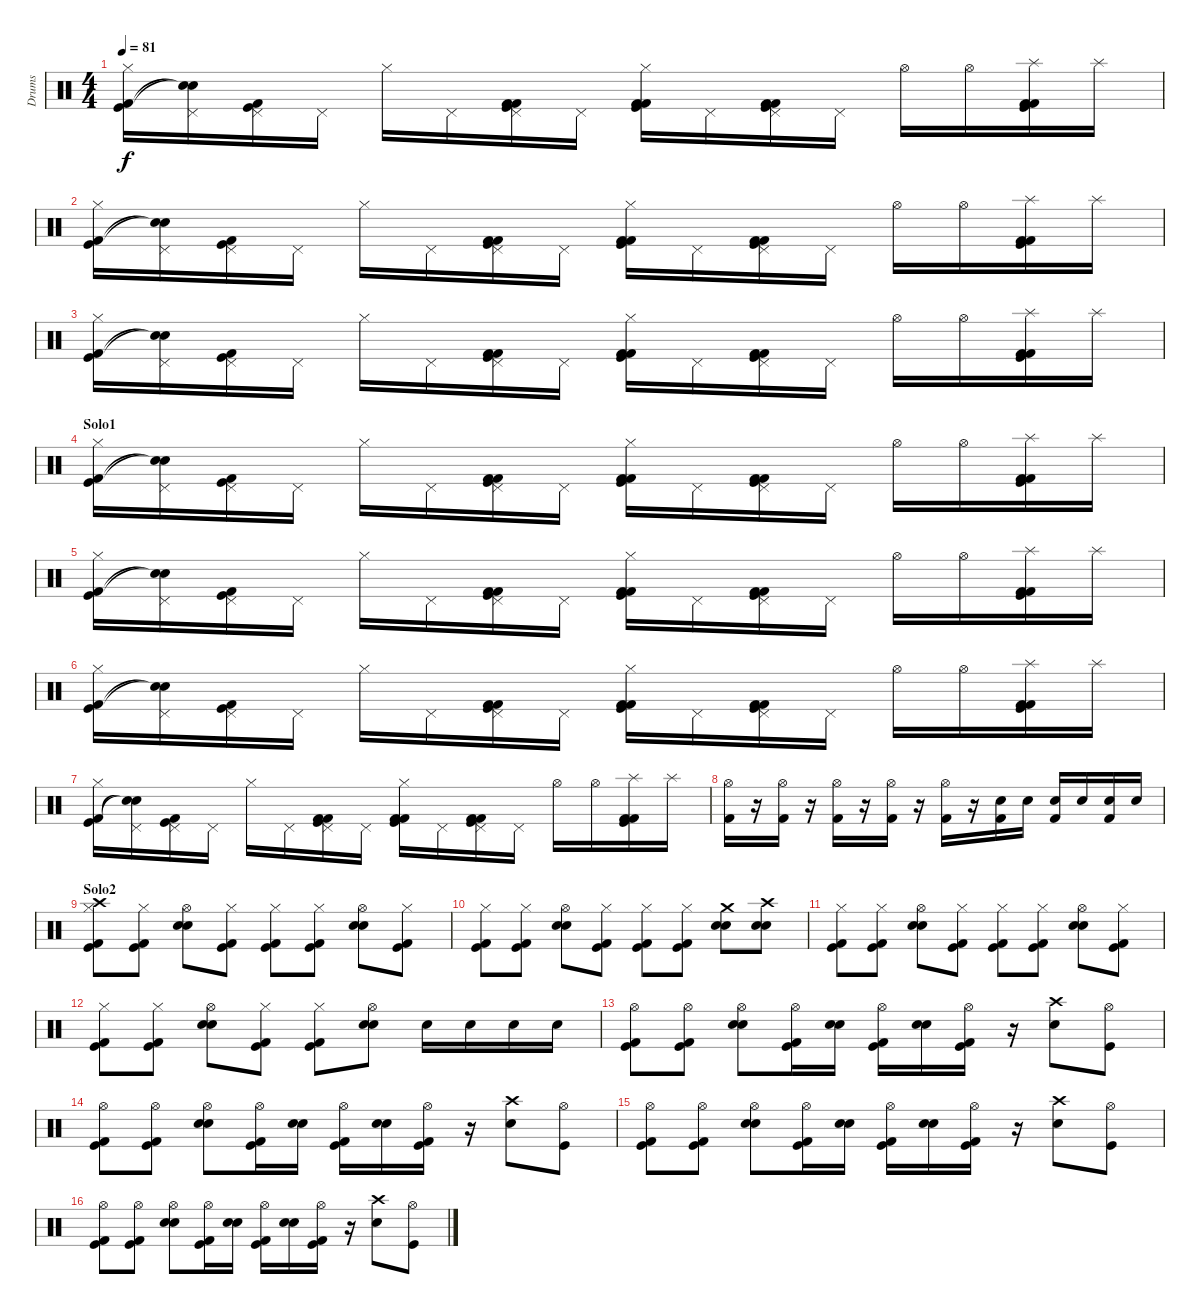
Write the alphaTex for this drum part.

\track ("Drums" "Drums") {instrument percussion}
\staff {score}
\articulation defaults
\ts (4 4)
\tempo 81
\clef neutral
\ks c
("Hi-Hat (closed)" "Kick (hit) 2" "Kick (hit)").16{dy f} ("Pedal Hi-Hat (hit)" "Snare (hit)"{t} "Snare (hit)"{t}).16 ("Pedal Hi-Hat (hit)" "Kick (hit) 2" "Kick (hit)").16 "Pedal Hi-Hat (hit)".16 "Hi-Hat (closed)".16 "Pedal Hi-Hat (hit)".16 ("Kick (hit) 2" "Pedal Hi-Hat (hit)" "Kick (hit) 2" "Kick (hit)").16 "Pedal Hi-Hat (hit)".16 ("Kick (hit) 2" "Hi-Hat (closed)" "Kick (hit) 2" "Kick (hit)").16 "Pedal Hi-Hat (hit)".16 ("Kick (hit) 2" "Pedal Hi-Hat (hit)" "Kick (hit) 2" "Kick (hit)").16 "Pedal Hi-Hat (hit)".16 "Hi-Hat (open)".16 "Hi-Hat (open)".16 ("Kick (hit) 2" "Splash (hit)" "Kick (hit) 2" "Kick (hit)").16 "Splash (hit)".16 |
("Hi-Hat (closed)" "Kick (hit) 2" "Kick (hit)").16 ("Pedal Hi-Hat (hit)" "Snare (hit)"{t} "Snare (hit)"{t}).16 ("Pedal Hi-Hat (hit)" "Kick (hit) 2" "Kick (hit)").16 "Pedal Hi-Hat (hit)".16 "Hi-Hat (closed)".16 "Pedal Hi-Hat (hit)".16 ("Kick (hit) 2" "Pedal Hi-Hat (hit)" "Kick (hit) 2" "Kick (hit)").16 "Pedal Hi-Hat (hit)".16 ("Kick (hit) 2" "Hi-Hat (closed)" "Kick (hit) 2" "Kick (hit)").16 "Pedal Hi-Hat (hit)".16 ("Kick (hit) 2" "Pedal Hi-Hat (hit)" "Kick (hit) 2" "Kick (hit)").16 "Pedal Hi-Hat (hit)".16 "Hi-Hat (open)".16 "Hi-Hat (open)".16 ("Kick (hit) 2" "Splash (hit)" "Kick (hit) 2" "Kick (hit)").16 "Splash (hit)".16 |
("Hi-Hat (closed)" "Kick (hit) 2" "Kick (hit)").16 ("Pedal Hi-Hat (hit)" "Snare (hit)"{t} "Snare (hit)"{t}).16 ("Pedal Hi-Hat (hit)" "Kick (hit) 2" "Kick (hit)").16 "Pedal Hi-Hat (hit)".16 "Hi-Hat (closed)".16 "Pedal Hi-Hat (hit)".16 ("Kick (hit) 2" "Pedal Hi-Hat (hit)" "Kick (hit) 2" "Kick (hit)").16 "Pedal Hi-Hat (hit)".16 ("Kick (hit) 2" "Hi-Hat (closed)" "Kick (hit) 2" "Kick (hit)").16 "Pedal Hi-Hat (hit)".16 ("Kick (hit) 2" "Pedal Hi-Hat (hit)" "Kick (hit) 2" "Kick (hit)").16 "Pedal Hi-Hat (hit)".16 "Hi-Hat (open)".16 "Hi-Hat (open)".16 ("Kick (hit) 2" "Splash (hit)" "Kick (hit) 2" "Kick (hit)").16 "Splash (hit)".16 |
\section ("" "Solo1")
("Hi-Hat (closed)" "Kick (hit) 2" "Kick (hit)").16 ("Pedal Hi-Hat (hit)" "Snare (hit)"{t} "Snare (hit)"{t}).16 ("Pedal Hi-Hat (hit)" "Kick (hit) 2" "Kick (hit)").16 "Pedal Hi-Hat (hit)".16 "Hi-Hat (closed)".16 "Pedal Hi-Hat (hit)".16 ("Kick (hit) 2" "Pedal Hi-Hat (hit)" "Kick (hit) 2" "Kick (hit)").16 "Pedal Hi-Hat (hit)".16 ("Kick (hit) 2" "Hi-Hat (closed)" "Kick (hit) 2" "Kick (hit)").16 "Pedal Hi-Hat (hit)".16 ("Kick (hit) 2" "Pedal Hi-Hat (hit)" "Kick (hit) 2" "Kick (hit)").16 "Pedal Hi-Hat (hit)".16 "Hi-Hat (open)".16 "Hi-Hat (open)".16 ("Kick (hit) 2" "Splash (hit)" "Kick (hit) 2" "Kick (hit)").16 "Splash (hit)".16 |
("Hi-Hat (closed)" "Kick (hit) 2" "Kick (hit)").16 ("Pedal Hi-Hat (hit)" "Snare (hit)"{t} "Snare (hit)"{t}).16 ("Pedal Hi-Hat (hit)" "Kick (hit) 2" "Kick (hit)").16 "Pedal Hi-Hat (hit)".16 "Hi-Hat (closed)".16 "Pedal Hi-Hat (hit)".16 ("Kick (hit) 2" "Pedal Hi-Hat (hit)" "Kick (hit) 2" "Kick (hit)").16 "Pedal Hi-Hat (hit)".16 ("Kick (hit) 2" "Hi-Hat (closed)" "Kick (hit) 2" "Kick (hit)").16 "Pedal Hi-Hat (hit)".16 ("Kick (hit) 2" "Pedal Hi-Hat (hit)" "Kick (hit) 2" "Kick (hit)").16 "Pedal Hi-Hat (hit)".16 "Hi-Hat (open)".16 "Hi-Hat (open)".16 ("Kick (hit) 2" "Splash (hit)" "Kick (hit) 2" "Kick (hit)").16 "Splash (hit)".16 |
("Hi-Hat (closed)" "Kick (hit) 2" "Kick (hit)").16 ("Pedal Hi-Hat (hit)" "Snare (hit)"{t} "Snare (hit)"{t}).16 ("Pedal Hi-Hat (hit)" "Kick (hit) 2" "Kick (hit)").16 "Pedal Hi-Hat (hit)".16 "Hi-Hat (closed)".16 "Pedal Hi-Hat (hit)".16 ("Kick (hit) 2" "Pedal Hi-Hat (hit)" "Kick (hit) 2" "Kick (hit)").16 "Pedal Hi-Hat (hit)".16 ("Kick (hit) 2" "Hi-Hat (closed)" "Kick (hit) 2" "Kick (hit)").16 "Pedal Hi-Hat (hit)".16 ("Kick (hit) 2" "Pedal Hi-Hat (hit)" "Kick (hit) 2" "Kick (hit)").16 "Pedal Hi-Hat (hit)".16 "Hi-Hat (open)".16 "Hi-Hat (open)".16 ("Kick (hit) 2" "Splash (hit)" "Kick (hit) 2" "Kick (hit)").16 "Splash (hit)".16 |
("Hi-Hat (closed)" "Kick (hit) 2" "Kick (hit)").16 ("Pedal Hi-Hat (hit)" "Snare (hit)"{t} "Snare (hit)"{t}).16 ("Pedal Hi-Hat (hit)" "Kick (hit) 2" "Kick (hit)").16 "Pedal Hi-Hat (hit)".16 "Hi-Hat (closed)".16 "Pedal Hi-Hat (hit)".16 ("Kick (hit) 2" "Pedal Hi-Hat (hit)" "Kick (hit) 2" "Kick (hit)").16 "Pedal Hi-Hat (hit)".16 ("Kick (hit) 2" "Hi-Hat (closed)" "Kick (hit) 2" "Kick (hit)").16 "Pedal Hi-Hat (hit)".16 ("Kick (hit) 2" "Pedal Hi-Hat (hit)" "Kick (hit) 2" "Kick (hit)").16 "Pedal Hi-Hat (hit)".16 "Hi-Hat (open)".16 "Hi-Hat (open)".16 ("Kick (hit) 2" "Splash (hit)" "Kick (hit) 2" "Kick (hit)").16 "Splash (hit)".16 |
("Kick (hit) 2" "Hi-Hat (open)").16 r.16 ("Kick (hit) 2" "Hi-Hat (open)").16 r.16 ("Kick (hit) 2" "Hi-Hat (open)").16 r.16 ("Kick (hit) 2" "Hi-Hat (open)").16 r.16 ("Kick (hit) 2" "Hi-Hat (open)").16 r.16 ("Kick (hit) 2" "Snare (hit) 2").16 "Snare (hit) 2".16 ("Kick (hit) 2" "Snare (hit) 2").16 "Snare (hit) 2".16 ("Kick (hit) 2" "Snare (hit) 2").16 "Snare (hit) 2".16 |
\section ("" "Solo2")
("Hi-Hat (closed)" "Crash high (hit)" "Kick (hit) 2" "Kick (hit)").8 ("Hi-Hat (closed)" "Kick (hit) 2" "Kick (hit)").8 ("Hi-Hat (open)" "Snare (hit) 2" "Electric Snare (hit)").8 ("Hi-Hat (closed)" "Kick (hit) 2" "Kick (hit)").8 ("Hi-Hat (closed)" "Kick (hit) 2" "Kick (hit)").8 ("Hi-Hat (closed)" "Kick (hit) 2" "Kick (hit)").8 ("Hi-Hat (open)" "Snare (hit) 2" "Electric Snare (hit)").8 ("Hi-Hat (closed)" "Kick (hit) 2" "Kick (hit)").8 |
("Hi-Hat (closed)" "Kick (hit) 2" "Kick (hit)").8 ("Hi-Hat (closed)" "Kick (hit) 2" "Kick (hit)").8 ("Hi-Hat (open)" "Snare (hit) 2" "Electric Snare (hit)").8 ("Hi-Hat (closed)" "Kick (hit) 2" "Kick (hit)").8 ("Hi-Hat (closed)" "Kick (hit) 2" "Kick (hit)").8 ("Hi-Hat (closed)" "Kick (hit) 2" "Kick (hit)").8 ("Crash medium (hit)" "Snare (hit) 2" "Electric Snare (hit)").8 ("Crash high (hit)" "Snare (hit) 2" "Electric Snare (hit)").8 |
("Hi-Hat (closed)" "Kick (hit) 2" "Kick (hit)").8 ("Hi-Hat (closed)" "Kick (hit) 2" "Kick (hit)").8 ("Hi-Hat (open)" "Snare (hit) 2" "Electric Snare (hit)").8 ("Hi-Hat (closed)" "Kick (hit) 2" "Kick (hit)").8 ("Hi-Hat (closed)" "Kick (hit) 2" "Kick (hit)").8 ("Hi-Hat (closed)" "Kick (hit) 2" "Kick (hit)").8 ("Hi-Hat (open)" "Snare (hit) 2" "Electric Snare (hit)").8 ("Hi-Hat (closed)" "Kick (hit) 2" "Kick (hit)").8 |
("Hi-Hat (closed)" "Kick (hit) 2" "Kick (hit)").8 ("Hi-Hat (closed)" "Kick (hit) 2" "Kick (hit)").8 ("Hi-Hat (open)" "Snare (hit) 2" "Electric Snare (hit)").8 ("Hi-Hat (closed)" "Kick (hit) 2" "Kick (hit)").8 ("Hi-Hat (closed)" "Kick (hit) 2" "Kick (hit)").8 ("Hi-Hat (open)" "Snare (hit) 2" "Electric Snare (hit)").8 "Snare (hit) 2".16 "Snare (hit) 2".16 "Snare (hit) 2".16 "Snare (hit) 2".16 |
("Hi-Hat (open)" "Kick (hit) 2" "Kick (hit)").8 ("Hi-Hat (open)" "Kick (hit) 2" "Kick (hit)").8 ("Hi-Hat (open)" "Electric Snare (hit)" "Snare (hit) 2").8 ("Hi-Hat (open)" "Kick (hit) 2" "Kick (hit)").16 ("Electric Snare (hit)" "Snare (hit) 2").16 ("Hi-Hat (open)" "Kick (hit) 2" "Kick (hit)").16 ("Electric Snare (hit)" "Snare (hit) 2").16 ("Hi-Hat (open)" "Kick (hit) 2" "Kick (hit)").16 r.16 ("Crash high (hit)" "Electric Snare (hit)").8 ("Hi-Hat (open)" "Kick (hit)").8 |
("Hi-Hat (open)" "Kick (hit) 2" "Kick (hit)").8 ("Hi-Hat (open)" "Kick (hit) 2" "Kick (hit)").8 ("Hi-Hat (open)" "Electric Snare (hit)" "Snare (hit) 2").8 ("Hi-Hat (open)" "Kick (hit) 2" "Kick (hit)").16 ("Electric Snare (hit)" "Snare (hit) 2").16 ("Hi-Hat (open)" "Kick (hit) 2" "Kick (hit)").16 ("Electric Snare (hit)" "Snare (hit) 2").16 ("Hi-Hat (open)" "Kick (hit) 2" "Kick (hit)").16 r.16 ("Crash high (hit)" "Electric Snare (hit)").8 ("Hi-Hat (open)" "Kick (hit)").8 |
("Hi-Hat (open)" "Kick (hit) 2" "Kick (hit)").8 ("Hi-Hat (open)" "Kick (hit) 2" "Kick (hit)").8 ("Hi-Hat (open)" "Electric Snare (hit)" "Snare (hit) 2").8 ("Hi-Hat (open)" "Kick (hit) 2" "Kick (hit)").16 ("Electric Snare (hit)" "Snare (hit) 2").16 ("Hi-Hat (open)" "Kick (hit) 2" "Kick (hit)").16 ("Electric Snare (hit)" "Snare (hit) 2").16 ("Hi-Hat (open)" "Kick (hit) 2" "Kick (hit)").16 r.16 ("Crash high (hit)" "Electric Snare (hit)").8 ("Hi-Hat (open)" "Kick (hit)").8 |
("Hi-Hat (open)" "Kick (hit) 2" "Kick (hit)").8 ("Hi-Hat (open)" "Kick (hit) 2" "Kick (hit)").8 ("Hi-Hat (open)" "Electric Snare (hit)" "Snare (hit) 2").8 ("Hi-Hat (open)" "Kick (hit) 2" "Kick (hit)").16 ("Electric Snare (hit)" "Snare (hit) 2").16 ("Hi-Hat (open)" "Kick (hit) 2" "Kick (hit)").16 ("Electric Snare (hit)" "Snare (hit) 2").16 ("Hi-Hat (open)" "Kick (hit) 2" "Kick (hit)").16 r.16 ("Crash high (hit)" "Electric Snare (hit)").8 ("Hi-Hat (open)" "Kick (hit)").8
